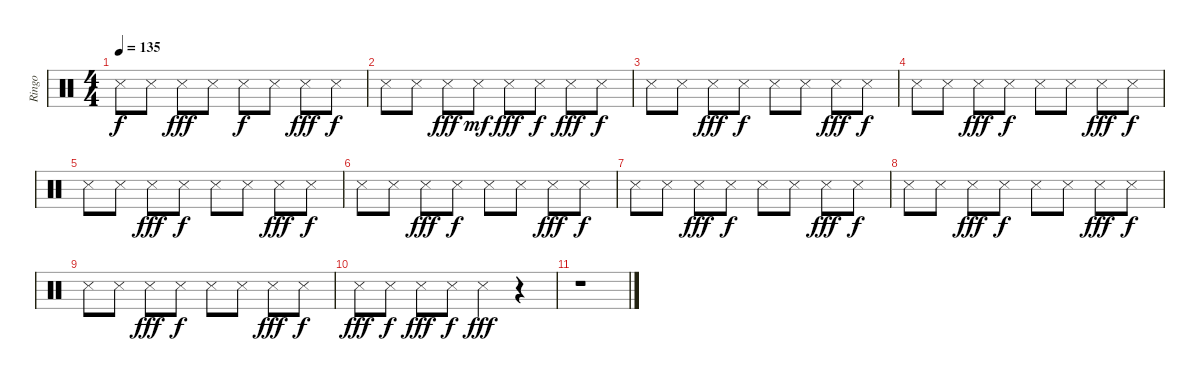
\track ("Ringo" "Ringo") {instrument percussion}
\staff {score}
\articulation defaults
\ts (4 4)
\tempo 135
\clef neutral
\ks c "Snare (side stick) 3".8{dy f} "Snare (side stick) 3".8 "Snare (side stick) 3".8{dy fff} "Snare (side stick) 3".8 "Snare (side stick) 3".8{dy f} "Snare (side stick) 3".8 "Snare (side stick) 3".8{dy fff} "Snare (side stick) 3".8{dy f}
|
"Snare (side stick) 3".8 "Snare (side stick) 3".8 "Snare (side stick) 3".8{dy fff} "Snare (side stick) 3".8{dy mf} "Snare (side stick) 3".8{dy fff} "Snare (side stick) 3".8{dy f} "Snare (side stick) 3".8{dy fff} "Snare (side stick) 3".8{dy f} |
"Snare (side stick) 3".8 "Snare (side stick) 3".8 "Snare (side stick) 3".8{dy fff} "Snare (side stick) 3".8{dy f} "Snare (side stick) 3".8 "Snare (side stick) 3".8 "Snare (side stick) 3".8{dy fff} "Snare (side stick) 3".8{dy f} |
"Snare (side stick) 3".8 "Snare (side stick) 3".8 "Snare (side stick) 3".8{dy fff} "Snare (side stick) 3".8{dy f} "Snare (side stick) 3".8 "Snare (side stick) 3".8 "Snare (side stick) 3".8{dy fff} "Snare (side stick) 3".8{dy f} |
"Snare (side stick) 3".8 "Snare (side stick) 3".8 "Snare (side stick) 3".8{dy fff} "Snare (side stick) 3".8{dy f} "Snare (side stick) 3".8 "Snare (side stick) 3".8 "Snare (side stick) 3".8{dy fff} "Snare (side stick) 3".8{dy f} |
"Snare (side stick) 3".8 "Snare (side stick) 3".8 "Snare (side stick) 3".8{dy fff} "Snare (side stick) 3".8{dy f} "Snare (side stick) 3".8 "Snare (side stick) 3".8 "Snare (side stick) 3".8{dy fff} "Snare (side stick) 3".8{dy f} |
"Snare (side stick) 3".8 "Snare (side stick) 3".8 "Snare (side stick) 3".8{dy fff} "Snare (side stick) 3".8{dy f} "Snare (side stick) 3".8 "Snare (side stick) 3".8 "Snare (side stick) 3".8{dy fff} "Snare (side stick) 3".8{dy f} |
"Snare (side stick) 3".8 "Snare (side stick) 3".8 "Snare (side stick) 3".8{dy fff} "Snare (side stick) 3".8{dy f} "Snare (side stick) 3".8 "Snare (side stick) 3".8 "Snare (side stick) 3".8{dy fff} "Snare (side stick) 3".8{dy f} |
"Snare (side stick) 3".8 "Snare (side stick) 3".8 "Snare (side stick) 3".8{dy fff} "Snare (side stick) 3".8{dy f} "Snare (side stick) 3".8 "Snare (side stick) 3".8 "Snare (side stick) 3".8{dy fff} "Snare (side stick) 3".8{dy f} |
"Snare (side stick) 3".8{dy fff} "Snare (side stick) 3".8{dy f} "Snare (side stick) 3".8{dy fff} "Snare (side stick) 3".8{dy f} "Snare (side stick) 3".4{dy fff} r.4 |
r.1
